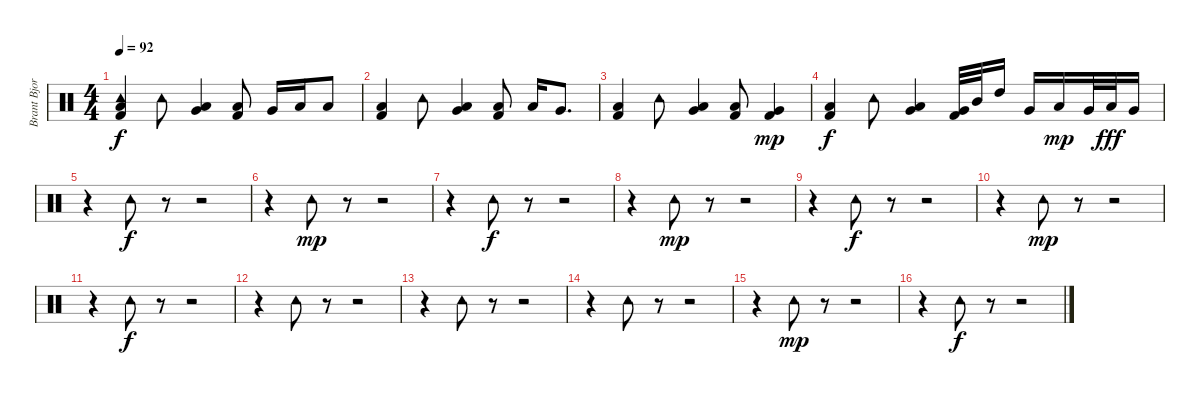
\track ("Brant Bjork - Drums" "Brant Bjor") {instrument percussion}
\staff {score}
\articulation defaults
\ts (4 4)
\tempo 92
\clef neutral
\ks c
("Tambourine (hit)" "Low Floor Tom (hit)" "Kick (hit) 2").4{dy f} "Tambourine (hit)".8 ("Low Floor Tom (hit)" "Very Low Tom (hit)").4 ("Low Floor Tom (hit)" "Kick (hit) 2").8 "Very Low Tom (hit)".16 "Low Floor Tom (hit)".16 "Low Floor Tom (hit)".8 |
("Low Floor Tom (hit)" "Kick (hit) 2").4 "Tambourine (hit)".8 ("Low Floor Tom (hit)" "Very Low Tom (hit)").4 ("Low Floor Tom (hit)" "Kick (hit) 2").8 "Low Floor Tom (hit)".16 "Very Low Tom (hit)".8{d} |
("Low Floor Tom (hit)" "Kick (hit) 2").4 "Tambourine (hit)".8 ("Low Floor Tom (hit)" "Very Low Tom (hit)").4 ("Low Floor Tom (hit)" "Kick (hit) 2").8 ("Very Low Tom (hit)" "Kick (hit) 2").4{dy mp} |
("Low Floor Tom (hit)" "Kick (hit) 2").4{dy f} "Tambourine (hit)".8 ("Low Floor Tom (hit)" "Very Low Tom (hit)").4 ("Very Low Tom (hit)" "Kick (hit) 2").32 "Mid Tom (hit)".32 "High Tom (hit)".16 "Very Low Tom (hit)".16 "Low Tom (hit)".16{dy mp} "Very Low Tom (hit)".32 "Low Floor Tom (hit)".32{dy fff} "Very Low Tom (hit)".16 |
r.4 "Tambourine (hit)".8{dy f} r.8 r.2 |
r.4 "Tambourine (hit)".8{dy mp} r.8 r.2 |
r.4 "Tambourine (hit)".8{dy f} r.8 r.2 |
r.4 "Tambourine (hit)".8{dy mp} r.8 r.2 |
r.4 "Tambourine (hit)".8{dy f} r.8 r.2 |
r.4 "Tambourine (hit)".8{dy mp} r.8 r.2 |
r.4 "Tambourine (hit)".8{dy f} r.8 r.2 |
r.4 "Tambourine (hit)".8 r.8 r.2 |
r.4 "Tambourine (hit)".8 r.8 r.2 |
r.4 "Tambourine (hit)".8 r.8 r.2 |
r.4 "Tambourine (hit)".8{dy mp} r.8 r.2 |
r.4 "Tambourine (hit)".8{dy f} r.8 r.2
